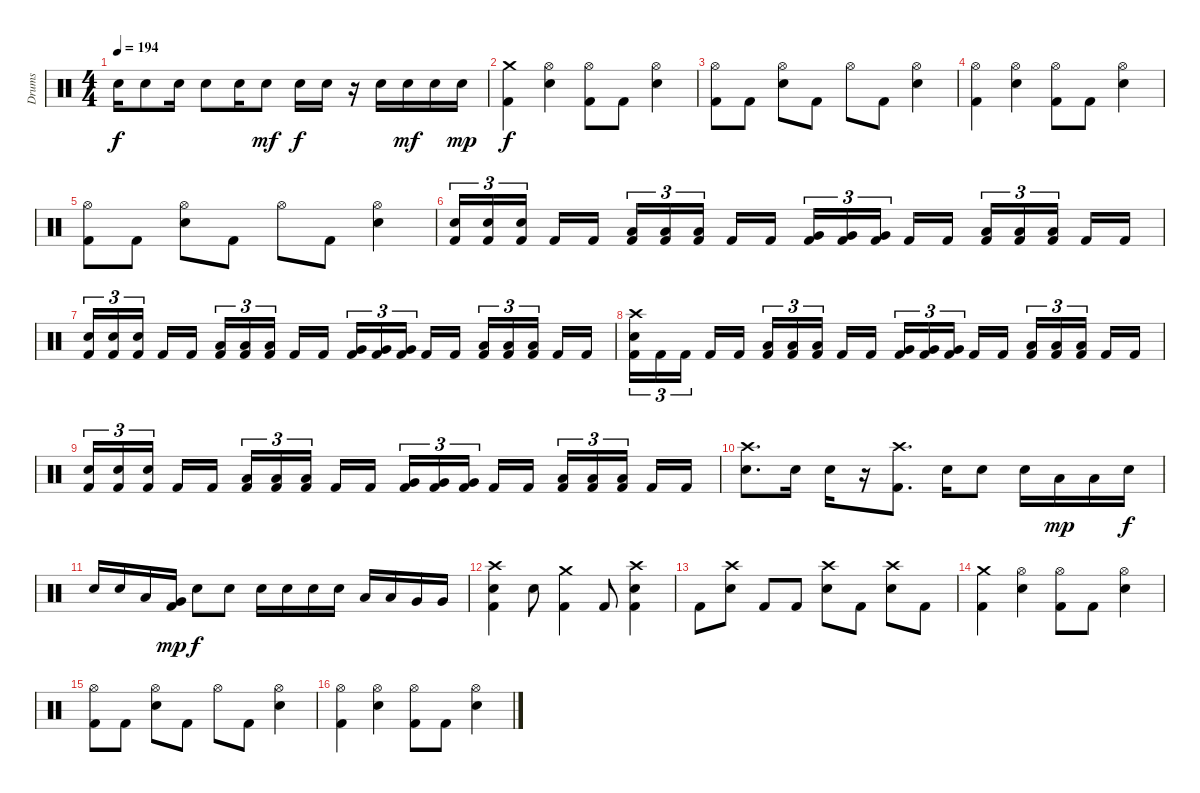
\track ("Drums" "Drums") {instrument percussion}
\staff {score}
\articulation defaults
\ts (4 4)
\tempo 194
\clef neutral
\ks c "Snare (hit) 2".16{dy f} "Snare (hit) 2".8 "Snare (hit) 2".16 "Snare (hit) 2".8 "Snare (hit) 2".16 "Snare (hit) 2".8{dy mf} "Snare (hit) 2".16{dy f} "Snare (hit) 2".16
r.16 "Snare (hit) 2".16 "Snare (hit) 2".16{dy mf} "Snare (hit) 2".16 "Snare (hit) 2".16{dy mp} |
("Crash medium (hit)" "Kick (hit) 2").4{dy f} ("Hi-Hat (open)" "Snare (hit) 2").4 ("Hi-Hat (open)" "Kick (hit) 2").8 "Kick (hit) 2".8 ("Hi-Hat (open)" "Snare (hit) 2").4 |
("Hi-Hat (open)" "Kick (hit) 2").8 "Kick (hit) 2".8 ("Hi-Hat (open)" "Snare (hit) 2").8 "Kick (hit) 2".8 "Hi-Hat (open)".8 "Kick (hit) 2".8 ("Hi-Hat (open)" "Snare (hit) 2").4 |
("Hi-Hat (open)" "Kick (hit) 2").4 ("Hi-Hat (open)" "Snare (hit) 2").4 ("Hi-Hat (open)" "Kick (hit) 2").8 "Kick (hit) 2".8 ("Hi-Hat (open)" "Snare (hit) 2").4 |
("Hi-Hat (open)" "Kick (hit) 2").8 "Kick (hit) 2".8 ("Hi-Hat (open)" "Snare (hit) 2").8 "Kick (hit) 2".8 "Hi-Hat (open)".8 "Kick (hit) 2".8 ("Hi-Hat (open)" "Snare (hit) 2").4 |
("Snare (hit) 2" "Kick (hit) 2").16{tu (3 2)} ("Snare (hit) 2" "Kick (hit) 2").16{tu (3 2)} ("Snare (hit) 2" "Kick (hit) 2").16{tu (3 2) beam splitsecondary} "Kick (hit) 2".16 "Kick (hit) 2".16 ("Low Tom (hit)" "Kick (hit) 2").16{tu (3 2)} ("Low Tom (hit)" "Kick (hit) 2").16{tu (3 2)} ("Low Tom (hit)" "Kick (hit) 2").16{tu (3 2) beam splitsecondary} "Kick (hit) 2".16 "Kick (hit) 2".16 ("Very Low Tom (hit)" "Kick (hit) 2").16{tu (3 2)} ("Very Low Tom (hit)" "Kick (hit) 2").16{tu (3 2)} ("Very Low Tom (hit)" "Kick (hit) 2").16{tu (3 2) beam splitsecondary} "Kick (hit) 2".16 "Kick (hit) 2".16 ("Low Tom (hit)" "Kick (hit) 2").16{tu (3 2)} ("Low Tom (hit)" "Kick (hit) 2").16{tu (3 2)} ("Low Tom (hit)" "Kick (hit) 2").16{tu (3 2) beam splitsecondary} "Kick (hit) 2".16 "Kick (hit) 2".16 |
("Snare (hit) 2" "Kick (hit) 2").16{tu (3 2)} ("Snare (hit) 2" "Kick (hit) 2").16{tu (3 2)} ("Snare (hit) 2" "Kick (hit) 2").16{tu (3 2) beam splitsecondary} "Kick (hit) 2".16 "Kick (hit) 2".16 ("Low Tom (hit)" "Kick (hit) 2").16{tu (3 2)} ("Low Tom (hit)" "Kick (hit) 2").16{tu (3 2)} ("Low Tom (hit)" "Kick (hit) 2").16{tu (3 2) beam splitsecondary} "Kick (hit) 2".16 "Kick (hit) 2".16 ("Very Low Tom (hit)" "Kick (hit) 2").16{tu (3 2)} ("Very Low Tom (hit)" "Kick (hit) 2").16{tu (3 2)} ("Very Low Tom (hit)" "Kick (hit) 2").16{tu (3 2) beam splitsecondary} "Kick (hit) 2".16 "Kick (hit) 2".16 ("Low Tom (hit)" "Kick (hit) 2").16{tu (3 2)} ("Low Tom (hit)" "Kick (hit) 2").16{tu (3 2)} ("Low Tom (hit)" "Kick (hit) 2").16{tu (3 2) beam splitsecondary} "Kick (hit) 2".16 "Kick (hit) 2".16 |
("Crash high (hit)" "Snare (hit) 2" "Kick (hit) 2").16{tu (3 2)} "Kick (hit) 2".16{tu (3 2)} "Kick (hit) 2".16{tu (3 2) beam splitsecondary} "Kick (hit) 2".16 "Kick (hit) 2".16 ("Low Tom (hit)" "Kick (hit) 2").16{tu (3 2)} ("Low Tom (hit)" "Kick (hit) 2").16{tu (3 2)} ("Low Tom (hit)" "Kick (hit) 2").16{tu (3 2) beam splitsecondary} "Kick (hit) 2".16 "Kick (hit) 2".16 ("Very Low Tom (hit)" "Kick (hit) 2").16{tu (3 2)} ("Very Low Tom (hit)" "Kick (hit) 2").16{tu (3 2)} ("Very Low Tom (hit)" "Kick (hit) 2").16{tu (3 2) beam splitsecondary} "Kick (hit) 2".16 "Kick (hit) 2".16 ("Low Tom (hit)" "Kick (hit) 2").16{tu (3 2)} ("Low Tom (hit)" "Kick (hit) 2").16{tu (3 2)} ("Low Tom (hit)" "Kick (hit) 2").16{tu (3 2) beam splitsecondary} "Kick (hit) 2".16 "Kick (hit) 2".16 |
("Snare (hit) 2" "Kick (hit) 2").16{tu (3 2)} ("Snare (hit) 2" "Kick (hit) 2").16{tu (3 2)} ("Snare (hit) 2" "Kick (hit) 2").16{tu (3 2) beam splitsecondary} "Kick (hit) 2".16 "Kick (hit) 2".16 ("Low Tom (hit)" "Kick (hit) 2").16{tu (3 2)} ("Low Tom (hit)" "Kick (hit) 2").16{tu (3 2)} ("Low Tom (hit)" "Kick (hit) 2").16{tu (3 2) beam splitsecondary} "Kick (hit) 2".16 "Kick (hit) 2".16 ("Very Low Tom (hit)" "Kick (hit) 2").16{tu (3 2)} ("Very Low Tom (hit)" "Kick (hit) 2").16{tu (3 2)} ("Very Low Tom (hit)" "Kick (hit) 2").16{tu (3 2) beam splitsecondary} "Kick (hit) 2".16 "Kick (hit) 2".16 ("Low Tom (hit)" "Kick (hit) 2").16{tu (3 2)} ("Low Tom (hit)" "Kick (hit) 2").16{tu (3 2)} ("Low Tom (hit)" "Kick (hit) 2").16{tu (3 2) beam splitsecondary} "Kick (hit) 2".16 "Kick (hit) 2".16 |
("Crash high (hit)" "Snare (hit) 2").8{d} "Snare (hit) 2".16 "Snare (hit) 2".16 r.16 ("Crash high (hit)" "Kick (hit) 2").8{d} "Snare (hit) 2".16 "Snare (hit) 2".8 "Snare (hit) 2".16 "Low Tom (hit)".16{dy mp} "Low Tom (hit)".16 "Snare (hit) 2".16{dy f} |
"Snare (hit) 2".16 "Snare (hit) 2".16 "Low Tom (hit)".16 ("Very Low Tom (hit)" "Kick (hit) 2").16{dy mp} "Snare (hit) 2".8{dy f} "Snare (hit) 2".8 "Snare (hit) 2".16 "Snare (hit) 2".16 "Snare (hit) 2".16 "Snare (hit) 2".16 "Low Tom (hit)".16 "Low Tom (hit)".16 "Very Low Tom (hit)".16 "Very Low Tom (hit)".16 |
("Crash high (hit)" "Snare (hit) 2" "Kick (hit) 2").4 "Snare (hit) 2".8 ("Crash medium (hit)" "Kick (hit) 2").4 "Kick (hit) 2".8 ("Crash high (hit)" "Snare (hit) 2" "Kick (hit) 2").4 |
"Kick (hit) 2".8 ("Crash high (hit)" "Snare (hit) 2").8 "Kick (hit) 2".8 "Kick (hit) 2".8 ("Crash high (hit)" "Snare (hit) 2").8 "Kick (hit) 2".8 ("Crash high (hit)" "Snare (hit) 2").8 "Kick (hit) 2".8 |
("Crash medium (hit)" "Kick (hit) 2").4 ("Hi-Hat (open)" "Snare (hit) 2").4 ("Hi-Hat (open)" "Kick (hit) 2").8 "Kick (hit) 2".8 ("Hi-Hat (open)" "Snare (hit) 2").4 |
("Hi-Hat (open)" "Kick (hit) 2").8 "Kick (hit) 2".8 ("Hi-Hat (open)" "Snare (hit) 2").8 "Kick (hit) 2".8 "Hi-Hat (open)".8 "Kick (hit) 2".8 ("Hi-Hat (open)" "Snare (hit) 2").4 |
("Hi-Hat (open)" "Kick (hit) 2").4 ("Hi-Hat (open)" "Snare (hit) 2").4 ("Hi-Hat (open)" "Kick (hit) 2").8 "Kick (hit) 2".8 ("Hi-Hat (open)" "Snare (hit) 2").4
